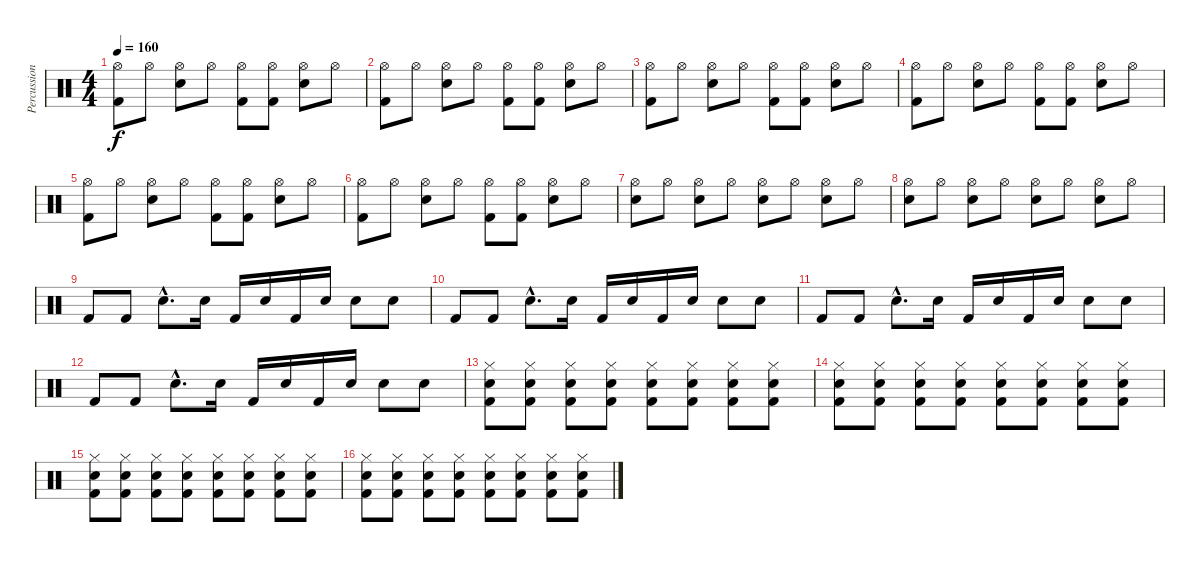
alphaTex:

\track ("Percussions" "Percussion") {instrument percussion}
\staff {score}
\articulation defaults
\ts (4 4)
\tempo 160
\clef neutral
\ks c
("Hi-Hat (open)" "Kick (hit) 2").8{dy f} "Hi-Hat (open)".8 ("Hi-Hat (open)" "Electric Snare (hit)").8 "Hi-Hat (open)".8 ("Hi-Hat (open)" "Kick (hit) 2").8 ("Hi-Hat (open)" "Kick (hit) 2").8 ("Hi-Hat (open)" "Electric Snare (hit)").8 "Hi-Hat (open)".8 |
("Hi-Hat (open)" "Kick (hit) 2").8 "Hi-Hat (open)".8 ("Hi-Hat (open)" "Electric Snare (hit)").8 "Hi-Hat (open)".8 ("Hi-Hat (open)" "Kick (hit) 2").8 ("Hi-Hat (open)" "Kick (hit) 2").8 ("Hi-Hat (open)" "Electric Snare (hit)").8 "Hi-Hat (open)".8 |
("Hi-Hat (open)" "Kick (hit) 2").8 "Hi-Hat (open)".8 ("Hi-Hat (open)" "Electric Snare (hit)").8 "Hi-Hat (open)".8 ("Hi-Hat (open)" "Kick (hit) 2").8 ("Hi-Hat (open)" "Kick (hit) 2").8 ("Hi-Hat (open)" "Electric Snare (hit)").8 "Hi-Hat (open)".8 |
("Hi-Hat (open)" "Kick (hit) 2").8 "Hi-Hat (open)".8 ("Hi-Hat (open)" "Electric Snare (hit)").8 "Hi-Hat (open)".8 ("Hi-Hat (open)" "Kick (hit) 2").8 ("Hi-Hat (open)" "Kick (hit) 2").8 ("Hi-Hat (open)" "Electric Snare (hit)").8 "Hi-Hat (open)".8 |
("Hi-Hat (open)" "Kick (hit) 2").8 "Hi-Hat (open)".8 ("Hi-Hat (open)" "Electric Snare (hit)").8 "Hi-Hat (open)".8 ("Hi-Hat (open)" "Kick (hit) 2").8 ("Hi-Hat (open)" "Kick (hit) 2").8 ("Hi-Hat (open)" "Electric Snare (hit)").8 "Hi-Hat (open)".8 |
("Hi-Hat (open)" "Kick (hit) 2").8 "Hi-Hat (open)".8 ("Hi-Hat (open)" "Electric Snare (hit)").8 "Hi-Hat (open)".8 ("Hi-Hat (open)" "Kick (hit) 2").8 ("Hi-Hat (open)" "Kick (hit) 2").8 ("Hi-Hat (open)" "Electric Snare (hit)").8 "Hi-Hat (open)".8 |
("Hi-Hat (open)" "Electric Snare (hit)").8 "Hi-Hat (open)".8 ("Hi-Hat (open)" "Electric Snare (hit)").8 "Hi-Hat (open)".8 ("Hi-Hat (open)" "Electric Snare (hit)").8 "Hi-Hat (open)".8 ("Hi-Hat (open)" "Electric Snare (hit)").8 "Hi-Hat (open)".8 |
("Hi-Hat (open)" "Electric Snare (hit)").8 "Hi-Hat (open)".8 ("Hi-Hat (open)" "Electric Snare (hit)").8 "Hi-Hat (open)".8 ("Hi-Hat (open)" "Electric Snare (hit)").8 "Hi-Hat (open)".8 ("Hi-Hat (open)" "Electric Snare (hit)").8 "Hi-Hat (open)".8 |
"Kick (hit) 2".8 "Kick (hit) 2".8 "Electric Snare (hit)"{hac}.8{d} "Electric Snare (hit)".16 "Kick (hit) 2".16 "Electric Snare (hit)".16 "Kick (hit) 2".16 "Electric Snare (hit)".16 "Electric Snare (hit)".8 "Electric Snare (hit)".8 |
"Kick (hit) 2".8 "Kick (hit) 2".8 "Electric Snare (hit)"{hac}.8{d} "Electric Snare (hit)".16 "Kick (hit) 2".16 "Electric Snare (hit)".16 "Kick (hit) 2".16 "Electric Snare (hit)".16 "Electric Snare (hit)".8 "Electric Snare (hit)".8 |
"Kick (hit) 2".8 "Kick (hit) 2".8 "Electric Snare (hit)"{hac}.8{d} "Electric Snare (hit)".16 "Kick (hit) 2".16 "Electric Snare (hit)".16 "Kick (hit) 2".16 "Electric Snare (hit)".16 "Electric Snare (hit)".8 "Electric Snare (hit)".8 |
"Kick (hit) 2".8 "Kick (hit) 2".8 "Electric Snare (hit)"{hac}.8{d} "Electric Snare (hit)".16 "Kick (hit) 2".16 "Electric Snare (hit)".16 "Kick (hit) 2".16 "Electric Snare (hit)".16 "Electric Snare (hit)".8 "Electric Snare (hit)".8 |
("Hi-Hat (closed)" "Electric Snare (hit)" "Kick (hit) 2").8 ("Hi-Hat (closed)" "Electric Snare (hit)" "Kick (hit) 2").8 ("Hi-Hat (closed)" "Electric Snare (hit)" "Kick (hit) 2").8 ("Hi-Hat (closed)" "Electric Snare (hit)" "Kick (hit) 2").8 ("Hi-Hat (closed)" "Electric Snare (hit)" "Kick (hit) 2").8 ("Hi-Hat (closed)" "Electric Snare (hit)" "Kick (hit) 2").8 ("Hi-Hat (closed)" "Electric Snare (hit)" "Kick (hit) 2").8 ("Hi-Hat (closed)" "Electric Snare (hit)" "Kick (hit) 2").8 |
("Hi-Hat (closed)" "Electric Snare (hit)" "Kick (hit) 2").8 ("Hi-Hat (closed)" "Electric Snare (hit)" "Kick (hit) 2").8 ("Hi-Hat (closed)" "Electric Snare (hit)" "Kick (hit) 2").8 ("Hi-Hat (closed)" "Electric Snare (hit)" "Kick (hit) 2").8 ("Hi-Hat (closed)" "Electric Snare (hit)" "Kick (hit) 2").8 ("Hi-Hat (closed)" "Electric Snare (hit)" "Kick (hit) 2").8 ("Hi-Hat (closed)" "Electric Snare (hit)" "Kick (hit) 2").8 ("Hi-Hat (closed)" "Electric Snare (hit)" "Kick (hit) 2").8 |
("Hi-Hat (closed)" "Electric Snare (hit)" "Kick (hit) 2").8 ("Hi-Hat (closed)" "Electric Snare (hit)" "Kick (hit) 2").8 ("Hi-Hat (closed)" "Electric Snare (hit)" "Kick (hit) 2").8 ("Hi-Hat (closed)" "Electric Snare (hit)" "Kick (hit) 2").8 ("Hi-Hat (closed)" "Electric Snare (hit)" "Kick (hit) 2").8 ("Hi-Hat (closed)" "Electric Snare (hit)" "Kick (hit) 2").8 ("Hi-Hat (closed)" "Electric Snare (hit)" "Kick (hit) 2").8 ("Hi-Hat (closed)" "Electric Snare (hit)" "Kick (hit) 2").8 |
("Hi-Hat (closed)" "Electric Snare (hit)" "Kick (hit) 2").8 ("Hi-Hat (closed)" "Electric Snare (hit)" "Kick (hit) 2").8 ("Hi-Hat (closed)" "Electric Snare (hit)" "Kick (hit) 2").8 ("Hi-Hat (closed)" "Electric Snare (hit)" "Kick (hit) 2").8 ("Hi-Hat (closed)" "Electric Snare (hit)" "Kick (hit) 2").8 ("Hi-Hat (closed)" "Electric Snare (hit)" "Kick (hit) 2").8 ("Hi-Hat (closed)" "Electric Snare (hit)" "Kick (hit) 2").8 ("Hi-Hat (closed)" "Electric Snare (hit)" "Kick (hit) 2").8
